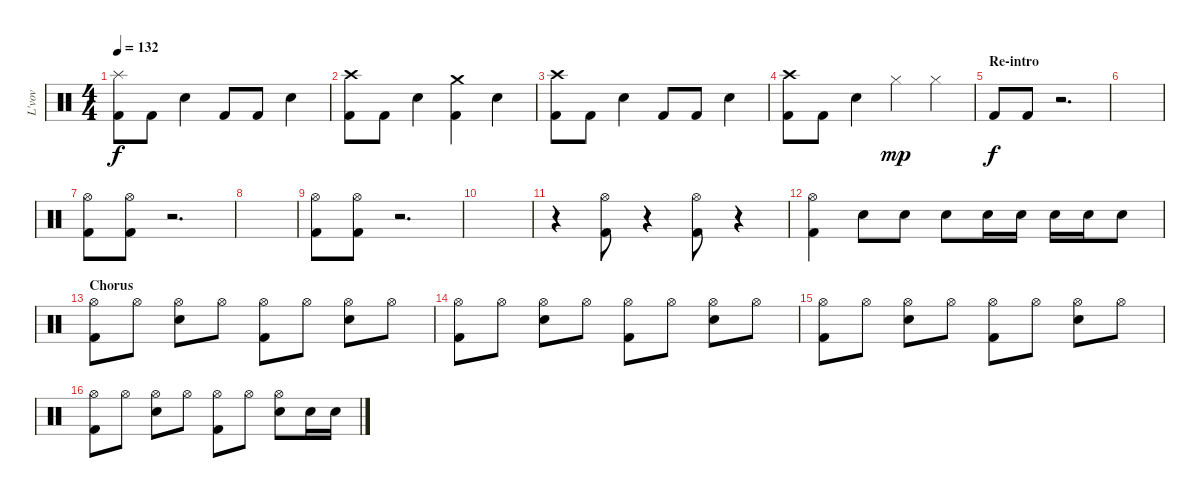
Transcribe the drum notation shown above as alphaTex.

\track ("L'vov" "L'vov") {instrument percussion}
\staff {score}
\articulation defaults
\ts (4 4)
\tempo 132
\clef neutral
\ks c
("Kick (hit) 2" "Splash (hit)").8{dy f} "Kick (hit) 2".8 "Snare (hit) 2".4 "Kick (hit) 2".8 "Kick (hit) 2".8 "Snare (hit) 2".4 |
("Kick (hit) 2" "Crash high (hit)").8 "Kick (hit) 2".8 "Snare (hit) 2".4 ("Kick (hit) 2" "Crash medium (hit)").4 "Snare (hit) 2".4 |
("Kick (hit) 2" "Crash high (hit)").8 "Kick (hit) 2".8 "Snare (hit) 2".4 "Kick (hit) 2".8 "Kick (hit) 2".8 "Snare (hit) 2".4 |
("Kick (hit) 2" "Crash high (hit)").8 "Kick (hit) 2".8 "Snare (hit) 2".4 "Hi-Hat (closed)".4{dy mp} "Hi-Hat (closed)".4 |
\section ("" "Re-intro")
"Kick (hit) 2".8{dy f} "Kick (hit) 2".8 r.2{d} |
|
("Hi-Hat (open)" "Kick (hit) 2").8 ("Hi-Hat (open)" "Kick (hit) 2").8 r.2{d} |
|
("Hi-Hat (open)" "Kick (hit) 2").8 ("Hi-Hat (open)" "Kick (hit) 2").8 r.2{d} |
|
r.4 ("Kick (hit) 2" "Hi-Hat (open)").8 r.4 ("Hi-Hat (open)" "Kick (hit) 2").8 r.4 |
("Hi-Hat (open)" "Kick (hit) 2").4 "Electric Snare (hit)".8 "Snare (hit) 2".8 "Snare (hit) 2".8 "Snare (hit) 2".16 "Snare (hit) 2".16 "Snare (hit) 2".16 "Snare (hit) 2".16 "Snare (hit) 2".8 |
\section ("" "Chorus")
("Hi-Hat (open)" "Kick (hit) 2").8 "Hi-Hat (open)".8 ("Hi-Hat (open)" "Snare (hit) 2").8 "Hi-Hat (open)".8 ("Hi-Hat (open)" "Kick (hit) 2").8 "Hi-Hat (open)".8 ("Hi-Hat (open)" "Snare (hit) 2").8 "Hi-Hat (open)".8 |
("Hi-Hat (open)" "Kick (hit) 2").8 "Hi-Hat (open)".8 ("Hi-Hat (open)" "Snare (hit) 2").8 "Hi-Hat (open)".8 ("Hi-Hat (open)" "Kick (hit) 2").8 "Hi-Hat (open)".8 ("Hi-Hat (open)" "Snare (hit) 2").8 "Hi-Hat (open)".8 |
("Hi-Hat (open)" "Kick (hit) 2").8 "Hi-Hat (open)".8 ("Hi-Hat (open)" "Snare (hit) 2").8 "Hi-Hat (open)".8 ("Hi-Hat (open)" "Kick (hit) 2").8 "Hi-Hat (open)".8 ("Hi-Hat (open)" "Snare (hit) 2").8 "Hi-Hat (open)".8 |
("Hi-Hat (open)" "Kick (hit) 2").8 "Hi-Hat (open)".8 ("Hi-Hat (open)" "Snare (hit) 2").8 "Hi-Hat (open)".8 ("Hi-Hat (open)" "Kick (hit) 2").8 "Hi-Hat (open)".8 ("Hi-Hat (open)" "Snare (hit) 2").8 "Snare (hit) 2".16 "Snare (hit) 2".16
